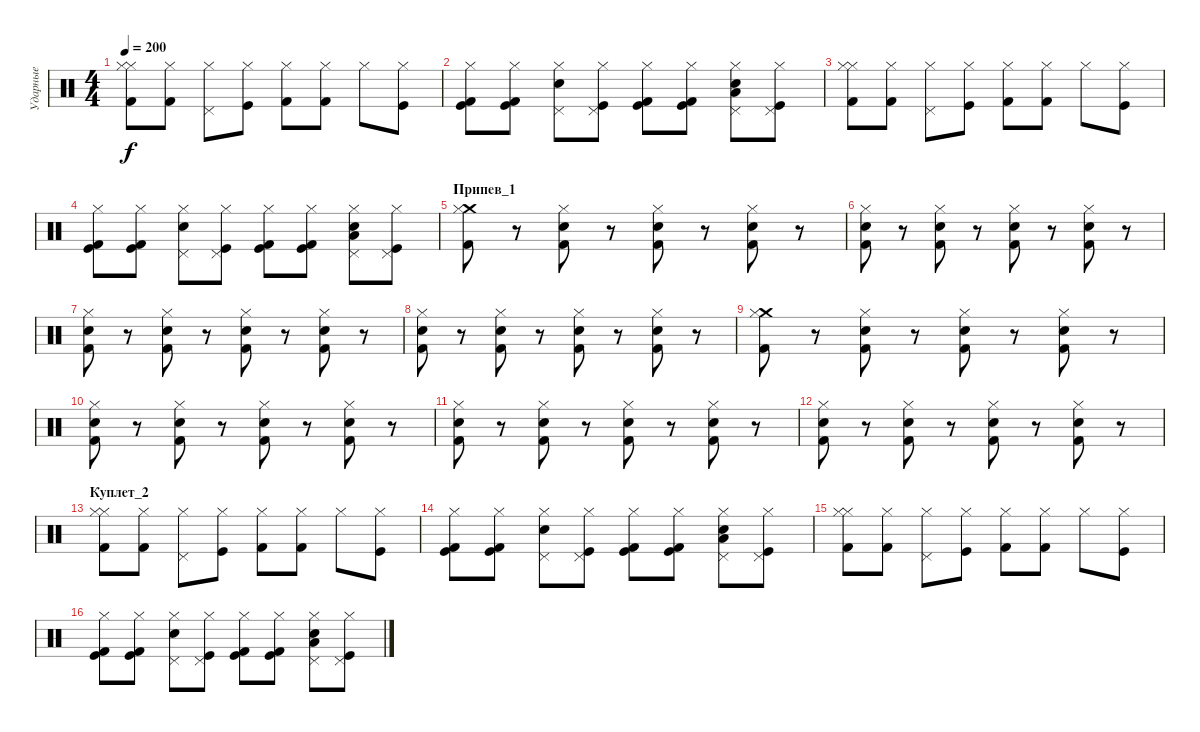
\track ("Ударные" "Ударные") {instrument percussion}
\staff {score}
\articulation defaults
\ts (4 4)
\tempo 200
\clef neutral
\ks c
("Hi-Hat (closed)" "Kick (hit) 2" "Hi-Hat (closed)").8{dy f} ("Hi-Hat (closed)" "Kick (hit) 2").8 ("Hi-Hat (closed)" "Pedal Hi-Hat (hit)").8 ("Hi-Hat (closed)" "Kick (hit)").8 ("Hi-Hat (closed)" "Kick (hit) 2").8 ("Hi-Hat (closed)" "Kick (hit) 2").8 "Hi-Hat (closed)".8 ("Hi-Hat (closed)" "Kick (hit)").8 |
("Kick (hit)" "Kick (hit) 2" "Hi-Hat (closed)").8 ("Kick (hit)" "Kick (hit) 2" "Hi-Hat (closed)").8 ("Electric Snare (hit)" "Pedal Hi-Hat (hit)" "Hi-Hat (closed)").8 ("Pedal Hi-Hat (hit)" "Kick (hit)" "Hi-Hat (closed)").8 ("Kick (hit)" "Kick (hit) 2" "Hi-Hat (closed)").8 ("Kick (hit)" "Kick (hit) 2" "Hi-Hat (closed)").8 ("Low Tom (hit)" "Electric Snare (hit)" "Pedal Hi-Hat (hit)" "Hi-Hat (closed)").8 ("Pedal Hi-Hat (hit)" "Kick (hit)" "Hi-Hat (closed)").8 |
("Hi-Hat (closed)" "Kick (hit) 2" "Hi-Hat (closed)").8 ("Hi-Hat (closed)" "Kick (hit) 2").8 ("Hi-Hat (closed)" "Pedal Hi-Hat (hit)").8 ("Hi-Hat (closed)" "Kick (hit)").8 ("Hi-Hat (closed)" "Kick (hit) 2").8 ("Hi-Hat (closed)" "Kick (hit) 2").8 "Hi-Hat (closed)".8 ("Hi-Hat (closed)" "Kick (hit)").8 |
("Kick (hit)" "Kick (hit) 2" "Hi-Hat (closed)").8 ("Kick (hit)" "Kick (hit) 2" "Hi-Hat (closed)").8 ("Electric Snare (hit)" "Pedal Hi-Hat (hit)" "Hi-Hat (closed)").8 ("Pedal Hi-Hat (hit)" "Kick (hit)" "Hi-Hat (closed)").8 ("Kick (hit)" "Kick (hit) 2" "Hi-Hat (closed)").8 ("Kick (hit)" "Kick (hit) 2" "Hi-Hat (closed)").8 ("Low Tom (hit)" "Electric Snare (hit)" "Pedal Hi-Hat (hit)" "Hi-Hat (closed)").8 ("Pedal Hi-Hat (hit)" "Kick (hit)" "Hi-Hat (closed)").8 |
\section ("" "Припев_1")
("Crash medium (hit)" "Kick (hit) 2" "Hi-Hat (closed)").8 r.8 ("Snare (hit) 2" "Kick (hit) 2" "Hi-Hat (closed)").8 r.8 ("Snare (hit) 2" "Kick (hit) 2" "Hi-Hat (closed)").8 r.8 ("Snare (hit) 2" "Kick (hit) 2" "Hi-Hat (closed)").8 r.8 |
("Snare (hit) 2" "Kick (hit) 2" "Hi-Hat (closed)").8 r.8 ("Snare (hit) 2" "Kick (hit) 2" "Hi-Hat (closed)").8 r.8 ("Snare (hit) 2" "Kick (hit) 2" "Hi-Hat (closed)").8 r.8 ("Snare (hit) 2" "Kick (hit) 2" "Hi-Hat (closed)").8 r.8 |
("Snare (hit) 2" "Kick (hit) 2" "Hi-Hat (closed)").8 r.8 ("Snare (hit) 2" "Kick (hit) 2" "Hi-Hat (closed)").8 r.8 ("Snare (hit) 2" "Kick (hit) 2" "Hi-Hat (closed)").8 r.8 ("Snare (hit) 2" "Kick (hit) 2" "Hi-Hat (closed)").8 r.8 |
("Snare (hit) 2" "Kick (hit) 2" "Hi-Hat (closed)").8 r.8 ("Snare (hit) 2" "Kick (hit) 2" "Hi-Hat (closed)").8 r.8 ("Snare (hit) 2" "Kick (hit) 2" "Hi-Hat (closed)").8 r.8 ("Snare (hit) 2" "Kick (hit) 2" "Hi-Hat (closed)").8 r.8 |
("Crash medium (hit)" "Kick (hit) 2" "Hi-Hat (closed)").8 r.8 ("Snare (hit) 2" "Kick (hit) 2" "Hi-Hat (closed)").8 r.8 ("Snare (hit) 2" "Kick (hit) 2" "Hi-Hat (closed)").8 r.8 ("Snare (hit) 2" "Kick (hit) 2" "Hi-Hat (closed)").8 r.8 |
("Snare (hit) 2" "Kick (hit) 2" "Hi-Hat (closed)").8 r.8 ("Snare (hit) 2" "Kick (hit) 2" "Hi-Hat (closed)").8 r.8 ("Snare (hit) 2" "Kick (hit) 2" "Hi-Hat (closed)").8 r.8 ("Snare (hit) 2" "Kick (hit) 2" "Hi-Hat (closed)").8 r.8 |
("Snare (hit) 2" "Kick (hit) 2" "Hi-Hat (closed)").8 r.8 ("Snare (hit) 2" "Kick (hit) 2" "Hi-Hat (closed)").8 r.8 ("Snare (hit) 2" "Kick (hit) 2" "Hi-Hat (closed)").8 r.8 ("Snare (hit) 2" "Kick (hit) 2" "Hi-Hat (closed)").8 r.8 |
("Snare (hit) 2" "Kick (hit) 2" "Hi-Hat (closed)").8 r.8 ("Snare (hit) 2" "Kick (hit) 2" "Hi-Hat (closed)").8 r.8 ("Snare (hit) 2" "Kick (hit) 2" "Hi-Hat (closed)").8 r.8 ("Snare (hit) 2" "Kick (hit) 2" "Hi-Hat (closed)").8 r.8 |
\section ("" "Куплет_2")
("Hi-Hat (closed)" "Kick (hit) 2" "Hi-Hat (closed)").8 ("Hi-Hat (closed)" "Kick (hit) 2").8 ("Hi-Hat (closed)" "Pedal Hi-Hat (hit)").8 ("Hi-Hat (closed)" "Kick (hit)").8 ("Hi-Hat (closed)" "Kick (hit) 2").8 ("Hi-Hat (closed)" "Kick (hit) 2").8 "Hi-Hat (closed)".8 ("Hi-Hat (closed)" "Kick (hit)").8 |
("Kick (hit)" "Kick (hit) 2" "Hi-Hat (closed)").8 ("Kick (hit)" "Kick (hit) 2" "Hi-Hat (closed)").8 ("Electric Snare (hit)" "Pedal Hi-Hat (hit)" "Hi-Hat (closed)").8 ("Pedal Hi-Hat (hit)" "Kick (hit)" "Hi-Hat (closed)").8 ("Kick (hit)" "Kick (hit) 2" "Hi-Hat (closed)").8 ("Kick (hit)" "Kick (hit) 2" "Hi-Hat (closed)").8 ("Low Tom (hit)" "Electric Snare (hit)" "Pedal Hi-Hat (hit)" "Hi-Hat (closed)").8 ("Pedal Hi-Hat (hit)" "Kick (hit)" "Hi-Hat (closed)").8 |
("Hi-Hat (closed)" "Kick (hit) 2" "Hi-Hat (closed)").8 ("Hi-Hat (closed)" "Kick (hit) 2").8 ("Hi-Hat (closed)" "Pedal Hi-Hat (hit)").8 ("Hi-Hat (closed)" "Kick (hit)").8 ("Hi-Hat (closed)" "Kick (hit) 2").8 ("Hi-Hat (closed)" "Kick (hit) 2").8 "Hi-Hat (closed)".8 ("Hi-Hat (closed)" "Kick (hit)").8 |
("Kick (hit)" "Kick (hit) 2" "Hi-Hat (closed)").8 ("Kick (hit)" "Kick (hit) 2" "Hi-Hat (closed)").8 ("Electric Snare (hit)" "Pedal Hi-Hat (hit)" "Hi-Hat (closed)").8 ("Pedal Hi-Hat (hit)" "Kick (hit)" "Hi-Hat (closed)").8 ("Kick (hit)" "Kick (hit) 2" "Hi-Hat (closed)").8 ("Kick (hit)" "Kick (hit) 2" "Hi-Hat (closed)").8 ("Low Tom (hit)" "Electric Snare (hit)" "Pedal Hi-Hat (hit)" "Hi-Hat (closed)").8 ("Pedal Hi-Hat (hit)" "Kick (hit)" "Hi-Hat (closed)").8
